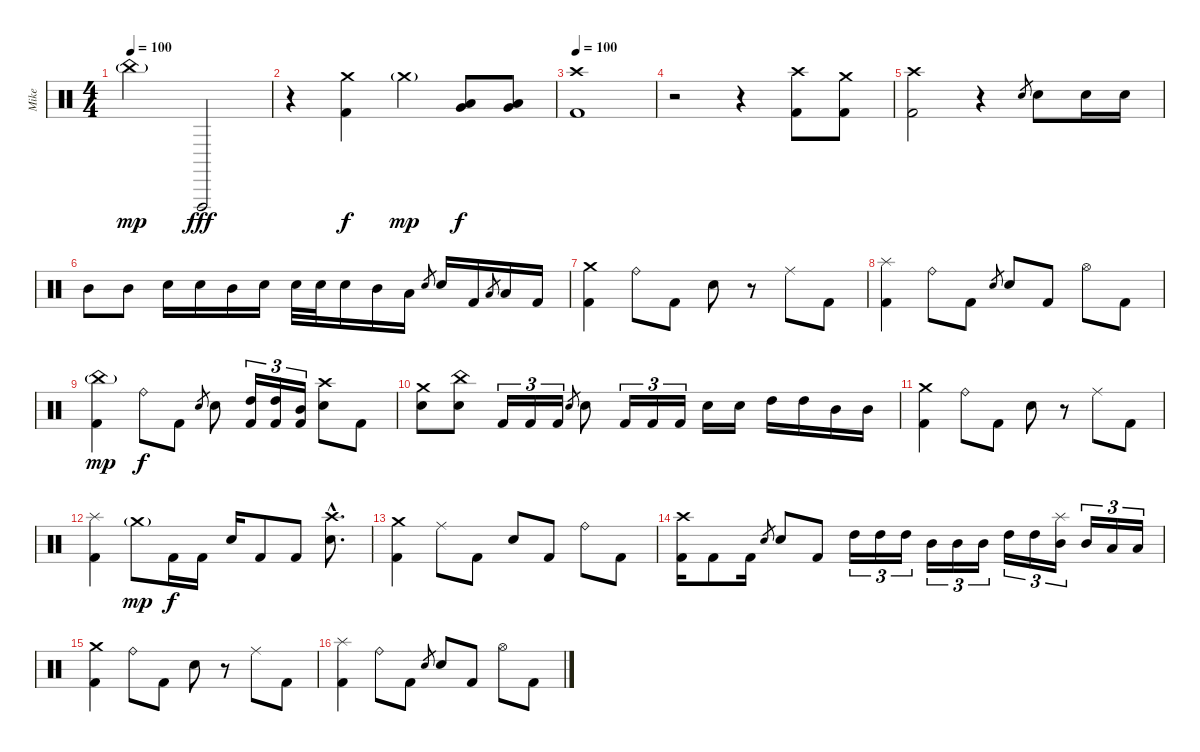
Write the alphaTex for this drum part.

\track ("Mike" "Mike") {instrument percussion}
\staff {score}
\articulation defaults
\ts (4 4)
\tempo 100
\clef neutral
\ks c "China (hit)"{g}.2{dy mp} "Vibraslap (hit)".2{dy fff}
|
r.4 ("Crash medium (hit)" "Kick (hit) 2").4{dy f} "Crash medium (hit)"{g}.4{dy mp} ("Low Tom (hit)" "Very Low Tom (hit)").8{dy f} ("Very Low Tom (hit)" "Low Floor Tom (hit)").8 |
\tempo 100
("Crash high (hit)" "Kick (hit) 2").1 |
r.2 r.4 ("Crash high (hit)" "Kick (hit) 2").8 ("Crash medium (hit)" "Kick (hit) 2").8 |
("Crash high (hit)" "Kick (hit) 2").2 r.4 "Electric Snare (hit)".8{gr} "Electric Snare (hit)".8 "Electric Snare (hit)".16 "Electric Snare (hit)".16 |
"Mid Tom (hit)".8 "Mid Tom (hit)".8 "Electric Snare (hit)".16 "Electric Snare (hit)".16 "Mid Tom (hit)".16 "Electric Snare (hit)".16 "Electric Snare (hit)".32 "Electric Snare (hit)".32 "Electric Snare (hit)".16 "Mid Tom (hit)".16 "Low Tom (hit)".16 "Electric Snare (hit)".8{gr} "Electric Snare (hit)".16 "Kick (hit) 2".16 "Low Tom (hit)".8{gr} "Low Tom (hit)".16 "Kick (hit) 2".16 |
("Crash medium (hit)" "Kick (hit) 2").4 "Ride (bell)".8 "Kick (hit) 2".8 "Electric Snare (hit)".8 r.8 "Ride (middle)".8 "Kick (hit) 2".8 |
("Splash (hit)" "Kick (hit) 2").4 "Ride (bell)".8 "Kick (hit) 2".8 "Electric Snare (hit)".8{gr} "Electric Snare (hit)".8 "Kick (hit) 2".8 "Hi-Hat (open)".8 "Kick (hit) 2".8 |
("China (hit)"{g} "Kick (hit) 2").4{dy mp} "Ride (bell)".8{dy f} "Kick (hit) 2".8 "Electric Snare (hit)".8{gr} "Electric Snare (hit)".8 ("High Tom (hit)" "Kick (hit) 2").16{tu (3 2)} ("High Tom (hit)" "Kick (hit) 2").16{tu (3 2)} ("Mid Tom (hit)" "Kick (hit) 2").16{tu (3 2)} ("Crash high (hit)" "Electric Snare (hit)").8 "Kick (hit) 2".8 |
("Crash medium (hit)" "Electric Snare (hit)").8 ("China (hit)" "Electric Snare (hit)").8 "Kick (hit) 2".16{tu (3 2)} "Kick (hit) 2".16{tu (3 2)} "Kick (hit) 2".16{tu (3 2)} "Electric Snare (hit)".8{gr} "Electric Snare (hit)".8 "Kick (hit) 2".16{tu (3 2)} "Kick (hit) 2".16{tu (3 2)} "Kick (hit) 2".16{tu (3 2)} "Electric Snare (hit)".16 "Electric Snare (hit)".16 "High Tom (hit)".16 "High Tom (hit)".16 "Mid Tom (hit)".16 "Mid Tom (hit)".16 |
("Crash medium (hit)" "Kick (hit) 2").4 "Ride (bell)".8 "Kick (hit) 2".8 "Electric Snare (hit)".8 r.8 "Ride (middle)".8 "Kick (hit) 2".8 |
("Splash (hit)" "Kick (hit) 2").4 "Crash medium (hit)"{g}.8{dy mp} "Kick (hit) 2".16{dy f} "Kick (hit) 2".16 "Electric Snare (hit)".16 "Kick (hit) 2".8 "Kick (hit) 2".8 ("Crash high (hit)"{hac} "Electric Snare (hit)"{hac}).8{d} |
("Crash medium (hit)" "Kick (hit) 2").4 "Ride (middle)".8 "Kick (hit) 2".8 "Electric Snare (hit)".8 "Kick (hit) 2".8 "Ride (bell)".8 "Kick (hit) 2".8 |
("Crash high (hit)" "Kick (hit) 2").16 "Kick (hit) 2".8 "Kick (hit) 2".16 "Electric Snare (hit)".8{gr} "Electric Snare (hit)".8 "Kick (hit) 2".8 "High Tom (hit)".16{tu (3 2)} "High Tom (hit)".16{tu (3 2)} "High Tom (hit)".16{tu (3 2)} "Mid Tom (hit)".16{tu (3 2)} "Mid Tom (hit)".16{tu (3 2)} "Mid Tom (hit)".16{tu (3 2)} "High Tom (hit)".16{tu (3 2)} "High Tom (hit)".16{tu (3 2)} ("Splash (hit)" "Mid Tom (hit)").16{tu (3 2)} "Mid Tom (hit)".16{tu (3 2)} "Low Tom (hit)".16{tu (3 2)} "Low Tom (hit)".16{tu (3 2)} |
("Crash medium (hit)" "Kick (hit) 2").4 "Ride (bell)".8 "Kick (hit) 2".8 "Electric Snare (hit)".8 r.8 "Ride (middle)".8 "Kick (hit) 2".8 |
("Splash (hit)" "Kick (hit) 2").4 "Ride (bell)".8 "Kick (hit) 2".8 "Electric Snare (hit)".8{gr} "Electric Snare (hit)".8 "Kick (hit) 2".8 "Hi-Hat (open)".8 "Kick (hit) 2".8
